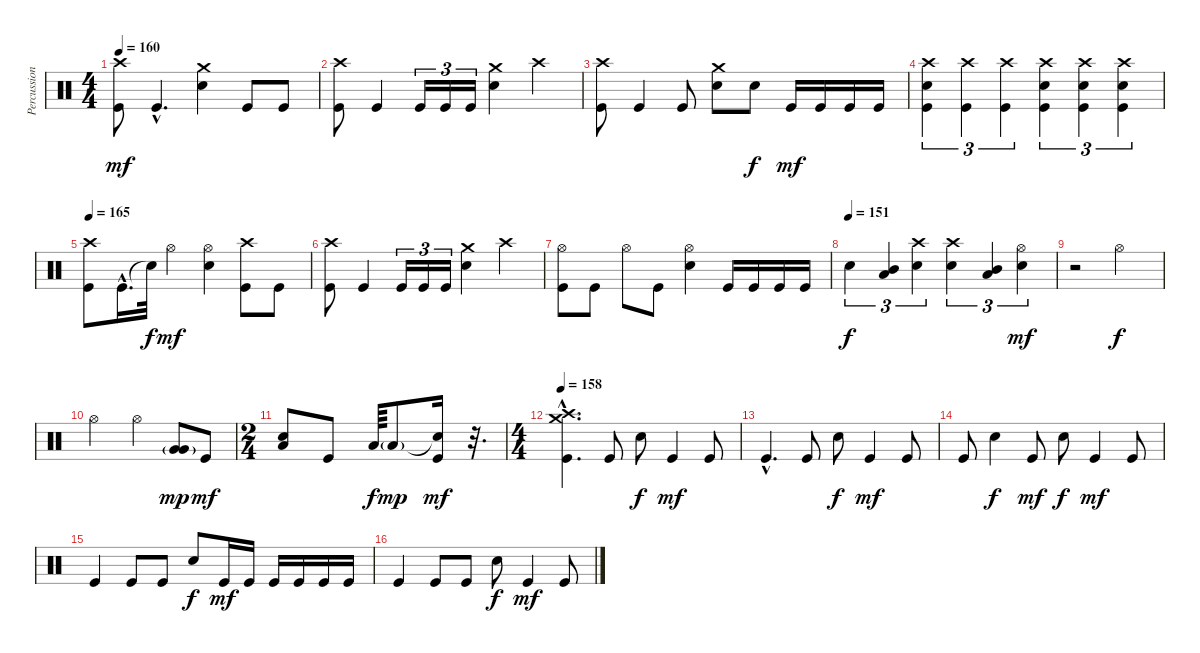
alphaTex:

\track ("Percussion" "Percussion") {instrument percussion}
\staff {score}
\articulation defaults
\ts (4 4)
\tempo 160
\clef neutral
\ks c
("Crash high (hit)" "Kick (hit)").8{dy mf} "Kick (hit)"{hac}.4{d} ("Crash medium (hit)" "Electric Snare (hit)").4 "Kick (hit)".8 "Kick (hit)".8 |
("Crash high (hit)" "Kick (hit)").8 "Kick (hit)".4 "Kick (hit)".16{tu (3 2)} "Kick (hit)".16{tu (3 2)} "Kick (hit)".16{tu (3 2)} ("Crash medium (hit)" "Electric Snare (hit)").4 "Crash high (hit)".4 |
("Crash high (hit)" "Kick (hit)").8 "Kick (hit)".4 "Kick (hit)".8 ("Crash medium (hit)" "Electric Snare (hit)").8 "Electric Snare (hit)".8{dy f} "Kick (hit)".16{dy mf} "Kick (hit)".16 "Kick (hit)".16 "Kick (hit)".16 |
("Crash high (hit)" "Electric Snare (hit)" "Kick (hit)").4{tu (3 2)} ("Crash high (hit)" "Kick (hit)").4{tu (3 2)} ("Crash high (hit)" "Kick (hit)").4{tu (3 2)} ("Crash high (hit)" "Electric Snare (hit)" "Kick (hit)").4{tu (3 2)} ("Crash high (hit)" "Electric Snare (hit)" "Kick (hit)").4{tu (3 2)} ("Crash high (hit)" "Electric Snare (hit)" "Kick (hit)").4{tu (3 2)} |
\tempo 165
("Crash high (hit)" "Kick (hit)").8 "Kick (hit)"{hac}.16{d} "Snare (hit)"{t}.32{dy f} "Hi-Hat (open)".4{dy mf} ("Hi-Hat (open)" "Electric Snare (hit)").4 ("Crash high (hit)" "Kick (hit)").8 "Kick (hit)".8 |
("Crash high (hit)" "Kick (hit)").8 "Kick (hit)".4 "Kick (hit)".16{tu (3 2)} "Kick (hit)".16{tu (3 2)} "Kick (hit)".16{tu (3 2)} ("Crash medium (hit)" "Electric Snare (hit)").4 "Crash high (hit)".4 |
("Hi-Hat (open)" "Kick (hit)").8 "Kick (hit)".8 "Hi-Hat (open)".8 "Kick (hit)".8 ("Hi-Hat (open)" "Electric Snare (hit)").4 "Kick (hit)".16 "Kick (hit)".16 "Kick (hit)".16 "Kick (hit)".16 |
\tempo (151)
"Electric Snare (hit)".4{tu (3 2) dy f} ("Mid Tom (hit)" "Low Tom (hit)").4{tu (3 2)} ("Crash high (hit)" "Electric Snare (hit)").4{tu (3 2)} ("Crash high (hit)" "Electric Snare (hit)").4{tu (3 2)} ("Mid Tom (hit)" "Low Tom (hit)").4{tu (3 2)} ("Hi-Hat (open)" "Electric Snare (hit)").4{tu (3 2) dy mf} |
r.2 "Hi-Hat (open)".2{dy f} |
"Hi-Hat (open)".2 "Hi-Hat (open)".4 ("Very Low Tom (hit)"{g} "Very Low Tom (hit)").8{dy mp} "Kick (hit)".8{dy mf} |
\ts (2 4)
("Low Tom (hit)" "Electric Snare (hit)").8 "Kick (hit)".8 "Low Floor Tom (hit)".64{dy f} "Low Floor Tom (hit)"{g}.8{dy mp} ("Snare (hit)"{t} "Kick (hit)").16{dy mf} r.32{d} |
\ts (4 4)
\tempo 158
("Crash medium (hit)"{hac} "Crash high (hit)"{hac} "Kick (hit)"{hac}).4{d} "Kick (hit)".8 "Electric Snare (hit)".8{dy f} "Kick (hit)".4{dy mf} "Kick (hit)".8 |
"Kick (hit)"{hac}.4{d} "Kick (hit)".8 "Electric Snare (hit)".8{dy f} "Kick (hit)".4{dy mf} "Kick (hit)".8 |
"Kick (hit)".8 "Electric Snare (hit)".4{dy f} "Kick (hit)".8{dy mf} "Electric Snare (hit)".8{dy f} "Kick (hit)".4{dy mf} "Kick (hit)".8 |
"Kick (hit)".4 "Kick (hit)".8 "Kick (hit)".8 "Electric Snare (hit)".8{dy f} "Kick (hit)".16{dy mf} "Kick (hit)".16 "Kick (hit)".16 "Kick (hit)".16 "Kick (hit)".16 "Kick (hit)".16 |
"Kick (hit)".4 "Kick (hit)".8 "Kick (hit)".8 "Electric Snare (hit)".8{dy f} "Kick (hit)".4{dy mf} "Kick (hit)".8
